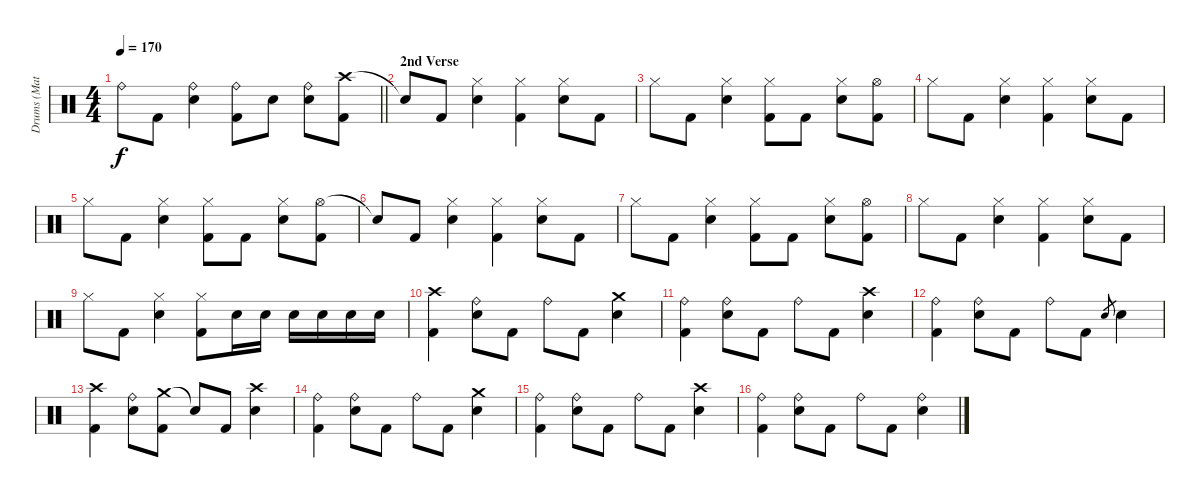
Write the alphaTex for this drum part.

\track ("Drums (Matt)" "Drums (Mat") {instrument percussion}
\staff {score}
\articulation defaults
\ts (4 4)
\tempo 170
\clef neutral
\barLineRight lightlight
\ks c "Ride (bell)".8{dy f} "Kick (hit) 2".8
("Ride (bell)" "Snare (hit) 2").4 ("Ride (bell)" "Kick (hit) 2").8 "Snare (hit) 2".8 ("Ride (bell)" "Snare (hit) 2").8 ("Crash high (hit)" "Kick (hit) 2").8 |
\section ("" "2nd Verse")
"Snare (hit)"{t}.8 "Kick (hit) 2".8 ("Hi-Hat (closed)" "Snare (hit) 2").4 ("Hi-Hat (closed)" "Kick (hit) 2").4 ("Hi-Hat (closed)" "Snare (hit) 2").8 "Kick (hit) 2".8 |
"Hi-Hat (closed)".8 "Kick (hit) 2".8 ("Hi-Hat (closed)" "Snare (hit) 2").4 ("Hi-Hat (closed)" "Kick (hit) 2").8 "Kick (hit) 2".8 ("Hi-Hat (closed)" "Snare (hit) 2").8 ("Hi-Hat (open)" "Kick (hit) 2").8 |
"Hi-Hat (closed)".8 "Kick (hit) 2".8 ("Hi-Hat (closed)" "Snare (hit) 2").4 ("Hi-Hat (closed)" "Kick (hit) 2").4 ("Hi-Hat (closed)" "Snare (hit) 2").8 "Kick (hit) 2".8 |
"Hi-Hat (closed)".8 "Kick (hit) 2".8 ("Hi-Hat (closed)" "Snare (hit) 2").4 ("Hi-Hat (closed)" "Kick (hit) 2").8 "Kick (hit) 2".8 ("Hi-Hat (closed)" "Snare (hit) 2").8 ("Hi-Hat (open)" "Kick (hit) 2").8 |
"Snare (hit)"{t}.8 "Kick (hit) 2".8 ("Hi-Hat (closed)" "Snare (hit) 2").4 ("Hi-Hat (closed)" "Kick (hit) 2").4 ("Hi-Hat (closed)" "Snare (hit) 2").8 "Kick (hit) 2".8 |
"Hi-Hat (closed)".8 "Kick (hit) 2".8 ("Hi-Hat (closed)" "Snare (hit) 2").4 ("Hi-Hat (closed)" "Kick (hit) 2").8 "Kick (hit) 2".8 ("Hi-Hat (closed)" "Snare (hit) 2").8 ("Hi-Hat (open)" "Kick (hit) 2").8 |
"Hi-Hat (closed)".8 "Kick (hit) 2".8 ("Hi-Hat (closed)" "Snare (hit) 2").4 ("Hi-Hat (closed)" "Kick (hit) 2").4 ("Hi-Hat (closed)" "Snare (hit) 2").8 "Kick (hit) 2".8 |
"Hi-Hat (closed)".8 "Kick (hit) 2".8 ("Hi-Hat (closed)" "Snare (hit) 2").4 ("Hi-Hat (closed)" "Kick (hit) 2").8 "Snare (hit) 2".16 "Snare (hit) 2".16 "Snare (hit) 2".16 "Snare (hit) 2".16 "Snare (hit) 2".16 "Snare (hit) 2".16 |
("Crash high (hit)" "Kick (hit) 2").4 ("Ride (bell)" "Snare (hit) 2").8 "Kick (hit) 2".8 "Ride (bell)".8 "Kick (hit) 2".8 ("Crash medium (hit)" "Snare (hit) 2").4 |
("Ride (bell)" "Kick (hit) 2").4 ("Ride (bell)" "Snare (hit) 2").8 "Kick (hit) 2".8 "Ride (bell)".8 "Kick (hit) 2".8 ("Crash high (hit)" "Snare (hit) 2").4 |
("Ride (bell)" "Kick (hit) 2").4 ("Ride (bell)" "Snare (hit) 2").8 "Kick (hit) 2".8 "Ride (bell)".8 "Kick (hit) 2".8 "Snare (hit) 2".8{gr} "Snare (hit) 2".4 |
("Crash high (hit)" "Kick (hit) 2").4 ("Ride (bell)" "Snare (hit) 2").8 ("Crash medium (hit)" "Kick (hit) 2").8 "Snare (hit)"{t}.8 "Kick (hit) 2".8 ("Crash high (hit)" "Snare (hit) 2").4 |
("Ride (bell)" "Kick (hit) 2").4 ("Ride (bell)" "Snare (hit) 2").8 "Kick (hit) 2".8 "Ride (bell)".8 "Kick (hit) 2".8 ("Crash medium (hit)" "Snare (hit) 2").4 |
("Ride (bell)" "Kick (hit) 2").4 ("Ride (bell)" "Snare (hit) 2").8 "Kick (hit) 2".8 "Ride (bell)".8 "Kick (hit) 2".8 ("Crash high (hit)" "Snare (hit) 2").4 |
("Ride (bell)" "Kick (hit) 2").4 ("Ride (bell)" "Snare (hit) 2").8 "Kick (hit) 2".8 "Ride (bell)".8 "Kick (hit) 2".8 ("Ride (bell)" "Snare (hit) 2").4
